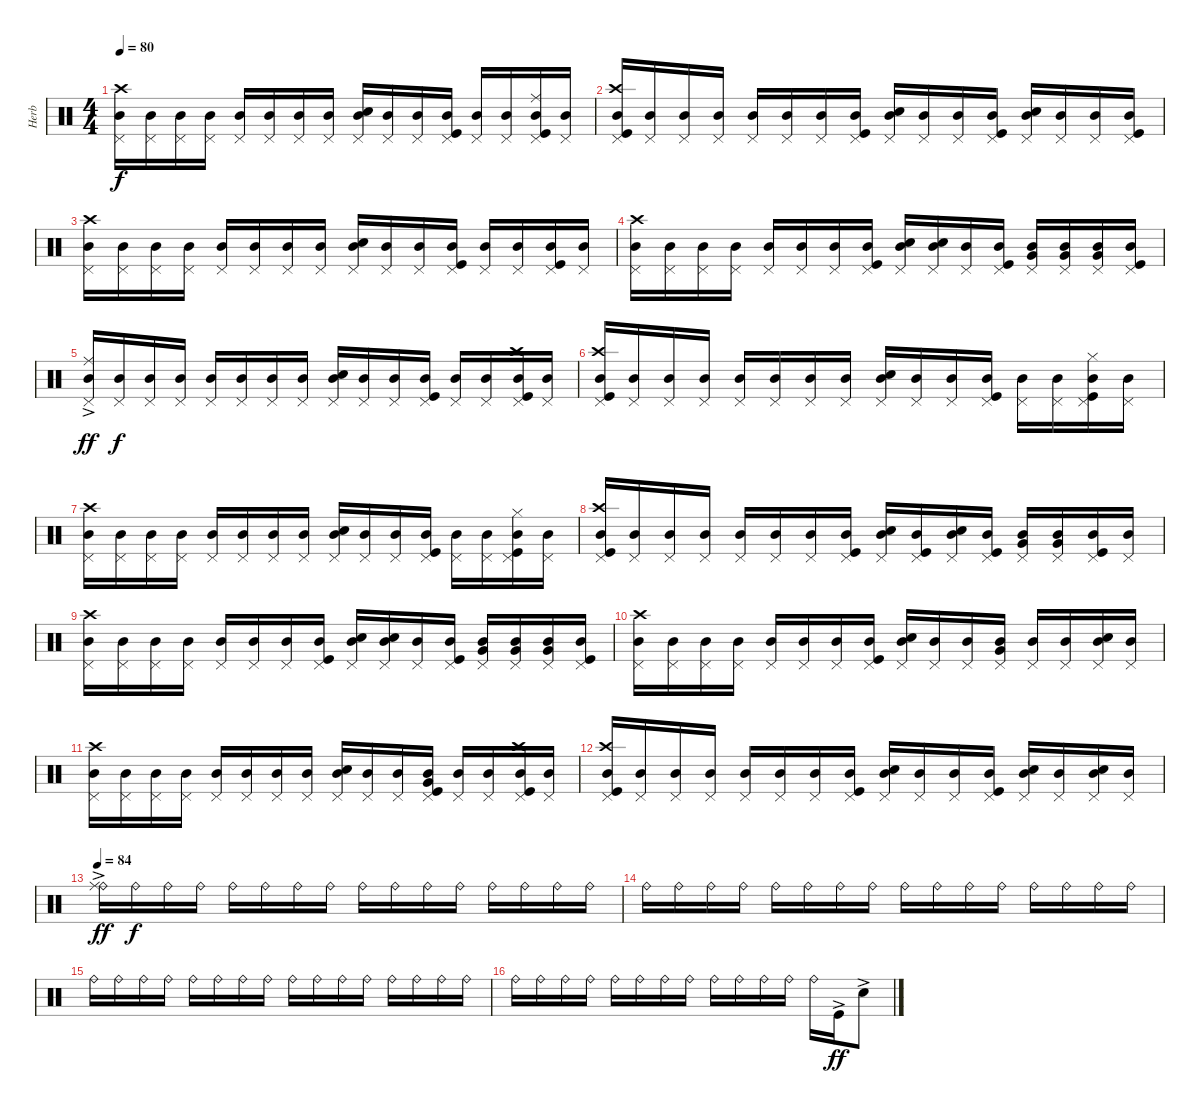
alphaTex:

\track ("Herb" "Herb") {instrument percussion}
\staff {score}
\articulation defaults
\ts (4 4)
\tempo 80
\clef neutral
\ks c
("Pedal Hi-Hat (hit)" "Mid Tom (hit)" "Crash high (hit)").16{dy f} ("Pedal Hi-Hat (hit)" "Mid Tom (hit)").16 ("Pedal Hi-Hat (hit)" "Mid Tom (hit)").16 ("Pedal Hi-Hat (hit)" "Mid Tom (hit)").16 ("Pedal Hi-Hat (hit)" "Mid Tom (hit)").16 ("Pedal Hi-Hat (hit)" "Mid Tom (hit)").16 ("Pedal Hi-Hat (hit)" "Mid Tom (hit)").16 ("Pedal Hi-Hat (hit)" "Mid Tom (hit)").16 ("Pedal Hi-Hat (hit)" "Mid Tom (hit)" "Snare (hit) 2").16 ("Pedal Hi-Hat (hit)" "Mid Tom (hit)").16 ("Pedal Hi-Hat (hit)" "Mid Tom (hit)").16 ("Pedal Hi-Hat (hit)" "Mid Tom (hit)" "Kick (hit)").16 ("Pedal Hi-Hat (hit)" "Mid Tom (hit)").16 ("Pedal Hi-Hat (hit)" "Mid Tom (hit)").16 ("Pedal Hi-Hat (hit)" "Mid Tom (hit)" "Ride (middle)" "Kick (hit)").16 ("Pedal Hi-Hat (hit)" "Mid Tom (hit)").16 |
("Pedal Hi-Hat (hit)" "Mid Tom (hit)" "Crash high (hit)" "Kick (hit)").16 ("Pedal Hi-Hat (hit)" "Mid Tom (hit)").16 ("Pedal Hi-Hat (hit)" "Mid Tom (hit)").16 ("Pedal Hi-Hat (hit)" "Mid Tom (hit)").16 ("Pedal Hi-Hat (hit)" "Mid Tom (hit)").16 ("Pedal Hi-Hat (hit)" "Mid Tom (hit)").16 ("Pedal Hi-Hat (hit)" "Mid Tom (hit)").16 ("Pedal Hi-Hat (hit)" "Mid Tom (hit)" "Kick (hit)").16 ("Pedal Hi-Hat (hit)" "Mid Tom (hit)" "Snare (hit) 2").16 ("Pedal Hi-Hat (hit)" "Mid Tom (hit)").16 ("Pedal Hi-Hat (hit)" "Mid Tom (hit)").16 ("Pedal Hi-Hat (hit)" "Mid Tom (hit)" "Kick (hit)").16 ("Pedal Hi-Hat (hit)" "Mid Tom (hit)" "Snare (hit) 2").16 ("Pedal Hi-Hat (hit)" "Mid Tom (hit)").16 ("Pedal Hi-Hat (hit)" "Mid Tom (hit)").16 ("Pedal Hi-Hat (hit)" "Mid Tom (hit)" "Kick (hit)").16 |
("Pedal Hi-Hat (hit)" "Mid Tom (hit)" "Crash high (hit)").16 ("Pedal Hi-Hat (hit)" "Mid Tom (hit)").16 ("Pedal Hi-Hat (hit)" "Mid Tom (hit)").16 ("Pedal Hi-Hat (hit)" "Mid Tom (hit)").16 ("Pedal Hi-Hat (hit)" "Mid Tom (hit)").16 ("Pedal Hi-Hat (hit)" "Mid Tom (hit)").16 ("Pedal Hi-Hat (hit)" "Mid Tom (hit)").16 ("Pedal Hi-Hat (hit)" "Mid Tom (hit)").16 ("Pedal Hi-Hat (hit)" "Mid Tom (hit)" "Snare (hit) 2").16 ("Pedal Hi-Hat (hit)" "Mid Tom (hit)").16 ("Pedal Hi-Hat (hit)" "Mid Tom (hit)").16 ("Pedal Hi-Hat (hit)" "Mid Tom (hit)" "Kick (hit)").16 ("Pedal Hi-Hat (hit)" "Mid Tom (hit)").16 ("Pedal Hi-Hat (hit)" "Mid Tom (hit)").16 ("Pedal Hi-Hat (hit)" "Mid Tom (hit)" "Kick (hit)").16 ("Pedal Hi-Hat (hit)" "Mid Tom (hit)").16 |
("Pedal Hi-Hat (hit)" "Mid Tom (hit)" "Crash high (hit)").16 ("Pedal Hi-Hat (hit)" "Mid Tom (hit)").16 ("Pedal Hi-Hat (hit)" "Mid Tom (hit)").16 ("Pedal Hi-Hat (hit)" "Mid Tom (hit)").16 ("Pedal Hi-Hat (hit)" "Mid Tom (hit)").16 ("Pedal Hi-Hat (hit)" "Mid Tom (hit)").16 ("Pedal Hi-Hat (hit)" "Mid Tom (hit)").16 ("Pedal Hi-Hat (hit)" "Mid Tom (hit)" "Kick (hit)").16 ("Pedal Hi-Hat (hit)" "Mid Tom (hit)" "Snare (hit) 2").16 ("Pedal Hi-Hat (hit)" "Mid Tom (hit)" "Snare (hit) 2").16 ("Pedal Hi-Hat (hit)" "Mid Tom (hit)").16 ("Pedal Hi-Hat (hit)" "Mid Tom (hit)" "Kick (hit)").16 ("Pedal Hi-Hat (hit)" "Mid Tom (hit)" "Very Low Tom (hit)").16 ("Pedal Hi-Hat (hit)" "Mid Tom (hit)" "Very Low Tom (hit)").16 ("Pedal Hi-Hat (hit)" "Mid Tom (hit)" "Very Low Tom (hit)").16 ("Pedal Hi-Hat (hit)" "Mid Tom (hit)" "Kick (hit)").16 |
("Pedal Hi-Hat (hit)" "Mid Tom (hit)" "Ride (middle)"{ac}).16{dy ff} ("Pedal Hi-Hat (hit)" "Mid Tom (hit)").16{dy f} ("Pedal Hi-Hat (hit)" "Mid Tom (hit)").16 ("Pedal Hi-Hat (hit)" "Mid Tom (hit)").16 ("Pedal Hi-Hat (hit)" "Mid Tom (hit)").16 ("Pedal Hi-Hat (hit)" "Mid Tom (hit)").16 ("Pedal Hi-Hat (hit)" "Mid Tom (hit)").16 ("Pedal Hi-Hat (hit)" "Mid Tom (hit)").16 ("Pedal Hi-Hat (hit)" "Mid Tom (hit)" "Snare (hit) 2").16 ("Pedal Hi-Hat (hit)" "Mid Tom (hit)").16 ("Pedal Hi-Hat (hit)" "Mid Tom (hit)").16 ("Pedal Hi-Hat (hit)" "Mid Tom (hit)" "Kick (hit)").16 ("Pedal Hi-Hat (hit)" "Mid Tom (hit)").16 ("Pedal Hi-Hat (hit)" "Mid Tom (hit)").16 ("Pedal Hi-Hat (hit)" "Mid Tom (hit)" "Crash high (hit)" "Kick (hit)").16 ("Pedal Hi-Hat (hit)" "Mid Tom (hit)").16 |
("Pedal Hi-Hat (hit)" "Mid Tom (hit)" "Crash high (hit)" "Kick (hit)").16 ("Pedal Hi-Hat (hit)" "Mid Tom (hit)").16 ("Pedal Hi-Hat (hit)" "Mid Tom (hit)").16 ("Pedal Hi-Hat (hit)" "Mid Tom (hit)").16 ("Pedal Hi-Hat (hit)" "Mid Tom (hit)").16 ("Pedal Hi-Hat (hit)" "Mid Tom (hit)").16 ("Pedal Hi-Hat (hit)" "Mid Tom (hit)").16 ("Pedal Hi-Hat (hit)" "Mid Tom (hit)").16 ("Pedal Hi-Hat (hit)" "Mid Tom (hit)" "Snare (hit) 2").16 ("Pedal Hi-Hat (hit)" "Mid Tom (hit)").16 ("Pedal Hi-Hat (hit)" "Mid Tom (hit)").16 ("Pedal Hi-Hat (hit)" "Mid Tom (hit)" "Kick (hit)").16 ("Pedal Hi-Hat (hit)" "Mid Tom (hit)").16 ("Pedal Hi-Hat (hit)" "Mid Tom (hit)").16 ("Pedal Hi-Hat (hit)" "Mid Tom (hit)" "Hi-Hat (closed)" "Kick (hit)").16 ("Pedal Hi-Hat (hit)" "Mid Tom (hit)").16 |
("Pedal Hi-Hat (hit)" "Mid Tom (hit)" "Crash high (hit)").16 ("Pedal Hi-Hat (hit)" "Mid Tom (hit)").16 ("Pedal Hi-Hat (hit)" "Mid Tom (hit)").16 ("Pedal Hi-Hat (hit)" "Mid Tom (hit)").16 ("Pedal Hi-Hat (hit)" "Mid Tom (hit)").16 ("Pedal Hi-Hat (hit)" "Mid Tom (hit)").16 ("Pedal Hi-Hat (hit)" "Mid Tom (hit)").16 ("Pedal Hi-Hat (hit)" "Mid Tom (hit)").16 ("Pedal Hi-Hat (hit)" "Mid Tom (hit)" "Snare (hit) 2").16 ("Pedal Hi-Hat (hit)" "Mid Tom (hit)").16 ("Pedal Hi-Hat (hit)" "Mid Tom (hit)").16 ("Pedal Hi-Hat (hit)" "Mid Tom (hit)" "Kick (hit)").16 ("Pedal Hi-Hat (hit)" "Mid Tom (hit)").16 ("Pedal Hi-Hat (hit)" "Mid Tom (hit)").16 ("Pedal Hi-Hat (hit)" "Mid Tom (hit)" "Hi-Hat (closed)" "Kick (hit)").16 ("Pedal Hi-Hat (hit)" "Mid Tom (hit)").16 |
("Pedal Hi-Hat (hit)" "Mid Tom (hit)" "Crash high (hit)" "Kick (hit)").16 ("Pedal Hi-Hat (hit)" "Mid Tom (hit)").16 ("Pedal Hi-Hat (hit)" "Mid Tom (hit)").16 ("Pedal Hi-Hat (hit)" "Mid Tom (hit)").16 ("Pedal Hi-Hat (hit)" "Mid Tom (hit)").16 ("Pedal Hi-Hat (hit)" "Mid Tom (hit)").16 ("Pedal Hi-Hat (hit)" "Mid Tom (hit)").16 ("Pedal Hi-Hat (hit)" "Mid Tom (hit)" "Kick (hit)").16 ("Pedal Hi-Hat (hit)" "Mid Tom (hit)" "Snare (hit) 2").16 ("Pedal Hi-Hat (hit)" "Mid Tom (hit)" "Kick (hit)").16 ("Pedal Hi-Hat (hit)" "Mid Tom (hit)" "Snare (hit) 2").16 ("Pedal Hi-Hat (hit)" "Mid Tom (hit)" "Kick (hit)").16 ("Pedal Hi-Hat (hit)" "Mid Tom (hit)" "Very Low Tom (hit)").16 ("Pedal Hi-Hat (hit)" "Mid Tom (hit)" "Very Low Tom (hit)").16 ("Pedal Hi-Hat (hit)" "Mid Tom (hit)" "Kick (hit)").16 ("Pedal Hi-Hat (hit)" "Mid Tom (hit)").16 |
("Pedal Hi-Hat (hit)" "Mid Tom (hit)" "Crash high (hit)").16 ("Pedal Hi-Hat (hit)" "Mid Tom (hit)").16 ("Pedal Hi-Hat (hit)" "Mid Tom (hit)").16 ("Pedal Hi-Hat (hit)" "Mid Tom (hit)").16 ("Pedal Hi-Hat (hit)" "Mid Tom (hit)").16 ("Pedal Hi-Hat (hit)" "Mid Tom (hit)").16 ("Pedal Hi-Hat (hit)" "Mid Tom (hit)").16 ("Pedal Hi-Hat (hit)" "Mid Tom (hit)" "Kick (hit)").16 ("Pedal Hi-Hat (hit)" "Mid Tom (hit)" "Snare (hit) 2").16 ("Pedal Hi-Hat (hit)" "Mid Tom (hit)" "Snare (hit) 2").16 ("Pedal Hi-Hat (hit)" "Mid Tom (hit)").16 ("Pedal Hi-Hat (hit)" "Mid Tom (hit)" "Kick (hit)").16 ("Pedal Hi-Hat (hit)" "Mid Tom (hit)" "Very Low Tom (hit)").16 ("Pedal Hi-Hat (hit)" "Mid Tom (hit)" "Very Low Tom (hit)").16 ("Pedal Hi-Hat (hit)" "Mid Tom (hit)" "Very Low Tom (hit)").16 ("Pedal Hi-Hat (hit)" "Mid Tom (hit)" "Kick (hit)").16 |
("Pedal Hi-Hat (hit)" "Mid Tom (hit)" "Crash high (hit)").16 ("Pedal Hi-Hat (hit)" "Mid Tom (hit)").16 ("Pedal Hi-Hat (hit)" "Mid Tom (hit)").16 ("Pedal Hi-Hat (hit)" "Mid Tom (hit)").16 ("Pedal Hi-Hat (hit)" "Mid Tom (hit)").16 ("Pedal Hi-Hat (hit)" "Mid Tom (hit)").16 ("Pedal Hi-Hat (hit)" "Mid Tom (hit)").16 ("Pedal Hi-Hat (hit)" "Mid Tom (hit)" "Kick (hit)").16 ("Pedal Hi-Hat (hit)" "Mid Tom (hit)" "Snare (hit) 2").16 ("Pedal Hi-Hat (hit)" "Mid Tom (hit)").16 ("Pedal Hi-Hat (hit)" "Mid Tom (hit)").16 ("Pedal Hi-Hat (hit)" "Mid Tom (hit)" "Very Low Tom (hit)").16 ("Pedal Hi-Hat (hit)" "Mid Tom (hit)").16 ("Pedal Hi-Hat (hit)" "Mid Tom (hit)").16 ("Pedal Hi-Hat (hit)" "Mid Tom (hit)" "Snare (hit) 2").16 ("Pedal Hi-Hat (hit)" "Mid Tom (hit)").16 |
("Pedal Hi-Hat (hit)" "Mid Tom (hit)" "Crash high (hit)").16 ("Pedal Hi-Hat (hit)" "Mid Tom (hit)").16 ("Pedal Hi-Hat (hit)" "Mid Tom (hit)").16 ("Pedal Hi-Hat (hit)" "Mid Tom (hit)").16 ("Pedal Hi-Hat (hit)" "Mid Tom (hit)").16 ("Pedal Hi-Hat (hit)" "Mid Tom (hit)").16 ("Pedal Hi-Hat (hit)" "Mid Tom (hit)").16 ("Pedal Hi-Hat (hit)" "Mid Tom (hit)").16 ("Pedal Hi-Hat (hit)" "Mid Tom (hit)" "Snare (hit) 2").16 ("Pedal Hi-Hat (hit)" "Mid Tom (hit)").16 ("Pedal Hi-Hat (hit)" "Mid Tom (hit)").16 ("Pedal Hi-Hat (hit)" "Mid Tom (hit)" "Very Low Tom (hit)" "Kick (hit)").16 ("Pedal Hi-Hat (hit)" "Mid Tom (hit)").16 ("Pedal Hi-Hat (hit)" "Mid Tom (hit)").16 ("Pedal Hi-Hat (hit)" "Mid Tom (hit)" "Crash high (hit)" "Kick (hit)").16 ("Pedal Hi-Hat (hit)" "Mid Tom (hit)").16 |
("Pedal Hi-Hat (hit)" "Mid Tom (hit)" "Crash high (hit)" "Kick (hit)").16 ("Pedal Hi-Hat (hit)" "Mid Tom (hit)").16 ("Pedal Hi-Hat (hit)" "Mid Tom (hit)").16 ("Pedal Hi-Hat (hit)" "Mid Tom (hit)").16 ("Pedal Hi-Hat (hit)" "Mid Tom (hit)").16 ("Pedal Hi-Hat (hit)" "Mid Tom (hit)").16 ("Pedal Hi-Hat (hit)" "Mid Tom (hit)").16 ("Pedal Hi-Hat (hit)" "Mid Tom (hit)" "Kick (hit)").16 ("Pedal Hi-Hat (hit)" "Mid Tom (hit)" "Snare (hit) 2").16 ("Pedal Hi-Hat (hit)" "Mid Tom (hit)").16 ("Pedal Hi-Hat (hit)" "Mid Tom (hit)").16 ("Pedal Hi-Hat (hit)" "Mid Tom (hit)" "Kick (hit)").16 ("Pedal Hi-Hat (hit)" "Mid Tom (hit)" "Snare (hit) 2").16 ("Pedal Hi-Hat (hit)" "Mid Tom (hit)").16 ("Pedal Hi-Hat (hit)" "Mid Tom (hit)" "Snare (hit) 2").16 ("Pedal Hi-Hat (hit)" "Mid Tom (hit)").16 |
\tempo 84
("Ride (bell)" "Ride (middle)"{ac}).16{dy ff} "Ride (bell)".16{dy f} "Ride (bell)".16 "Ride (bell)".16 "Ride (bell)".16 "Ride (bell)".16 "Ride (bell)".16 "Ride (bell)".16 "Ride (bell)".16 "Ride (bell)".16 "Ride (bell)".16 "Ride (bell)".16 "Ride (bell)".16 "Ride (bell)".16 "Ride (bell)".16 "Ride (bell)".16 |
"Ride (bell)".16 "Ride (bell)".16 "Ride (bell)".16 "Ride (bell)".16 "Ride (bell)".16 "Ride (bell)".16 "Ride (bell)".16 "Ride (bell)".16 "Ride (bell)".16 "Ride (bell)".16 "Ride (bell)".16 "Ride (bell)".16 "Ride (bell)".16 "Ride (bell)".16 "Ride (bell)".16 "Ride (bell)".16 |
"Ride (bell)".16 "Ride (bell)".16 "Ride (bell)".16 "Ride (bell)".16 "Ride (bell)".16 "Ride (bell)".16 "Ride (bell)".16 "Ride (bell)".16 "Ride (bell)".16 "Ride (bell)".16 "Ride (bell)".16 "Ride (bell)".16 "Ride (bell)".16 "Ride (bell)".16 "Ride (bell)".16 "Ride (bell)".16 |
"Ride (bell)".16 "Ride (bell)".16 "Ride (bell)".16 "Ride (bell)".16 "Ride (bell)".16 "Ride (bell)".16 "Ride (bell)".16 "Ride (bell)".16 "Ride (bell)".16 "Ride (bell)".16 "Ride (bell)".16 "Ride (bell)".16 "Ride (bell)".16 "Kick (hit)"{ac}.16{dy ff} "Snare (hit) 2"{ac}.8
